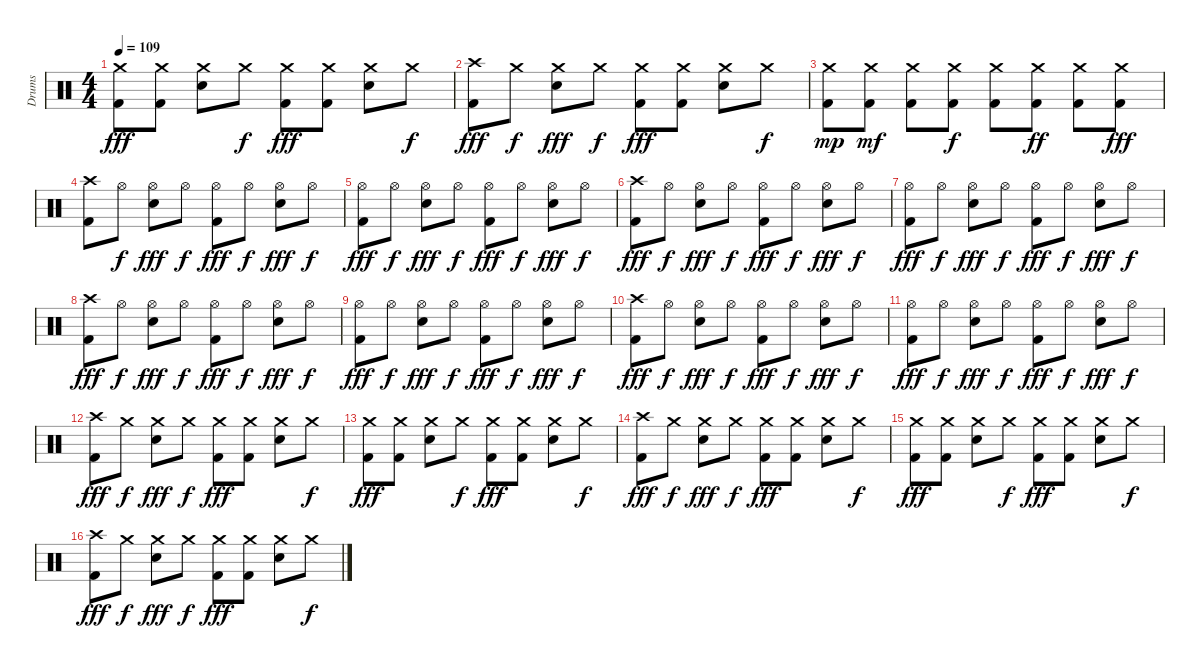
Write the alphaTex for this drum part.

\track ("Drums" "Drums") {instrument percussion}
\staff {score}
\articulation defaults
\ts (4 4)
\tempo 109
\clef neutral
\ks c
("Crash medium (hit)" "Kick (hit) 2").8{dy fff} ("Crash medium (hit)" "Kick (hit) 2").8 ("Crash medium (hit)" "Electric Snare (hit)").8 "Crash medium (hit)".8{dy f} ("Crash medium (hit)" "Kick (hit) 2").8{dy fff} ("Crash medium (hit)" "Kick (hit) 2").8 ("Crash medium (hit)" "Electric Snare (hit)").8 "Crash medium (hit)".8{dy f} |
("Crash high (hit)" "Kick (hit) 2").8{dy fff} "Crash medium (hit)".8{dy f} ("Crash medium (hit)" "Electric Snare (hit)").8{dy fff} "Crash medium (hit)".8{dy f} ("Crash medium (hit)" "Kick (hit) 2").8{dy fff} ("Crash medium (hit)" "Kick (hit) 2").8 ("Crash medium (hit)" "Electric Snare (hit)").8 "Crash medium (hit)".8{dy f} |
("Crash medium (hit)" "Kick (hit) 2").8{dy mp} ("Crash medium (hit)" "Kick (hit) 2").8{dy mf} ("Crash medium (hit)" "Kick (hit) 2").8 ("Crash medium (hit)" "Kick (hit) 2").8{dy f} ("Crash medium (hit)" "Kick (hit) 2").8 ("Crash medium (hit)" "Kick (hit) 2").8{dy ff} ("Crash medium (hit)" "Kick (hit) 2").8 ("Crash medium (hit)" "Kick (hit) 2").8{dy fff} |
("Crash high (hit)" "Kick (hit) 2").8 "Hi-Hat (open)".8{dy f} ("Hi-Hat (open)" "Electric Snare (hit)").8{dy fff} "Hi-Hat (open)".8{dy f} ("Hi-Hat (open)" "Kick (hit) 2").8{dy fff} "Hi-Hat (open)".8{dy f} ("Hi-Hat (open)" "Electric Snare (hit)").8{dy fff} "Hi-Hat (open)".8{dy f} |
("Hi-Hat (open)" "Kick (hit) 2").8{dy fff} "Hi-Hat (open)".8{dy f} ("Hi-Hat (open)" "Electric Snare (hit)").8{dy fff} "Hi-Hat (open)".8{dy f} ("Hi-Hat (open)" "Kick (hit) 2").8{dy fff} "Hi-Hat (open)".8{dy f} ("Hi-Hat (open)" "Electric Snare (hit)").8{dy fff} "Hi-Hat (open)".8{dy f} |
("Crash high (hit)" "Kick (hit) 2").8{dy fff} "Hi-Hat (open)".8{dy f} ("Hi-Hat (open)" "Electric Snare (hit)").8{dy fff} "Hi-Hat (open)".8{dy f} ("Hi-Hat (open)" "Kick (hit) 2").8{dy fff} "Hi-Hat (open)".8{dy f} ("Hi-Hat (open)" "Electric Snare (hit)").8{dy fff} "Hi-Hat (open)".8{dy f} |
("Hi-Hat (open)" "Kick (hit) 2").8{dy fff} "Hi-Hat (open)".8{dy f} ("Hi-Hat (open)" "Electric Snare (hit)").8{dy fff} "Hi-Hat (open)".8{dy f} ("Hi-Hat (open)" "Kick (hit) 2").8{dy fff} "Hi-Hat (open)".8{dy f} ("Hi-Hat (open)" "Electric Snare (hit)").8{dy fff} "Hi-Hat (open)".8{dy f} |
("Crash high (hit)" "Kick (hit) 2").8{dy fff} "Hi-Hat (open)".8{dy f} ("Hi-Hat (open)" "Electric Snare (hit)").8{dy fff} "Hi-Hat (open)".8{dy f} ("Hi-Hat (open)" "Kick (hit) 2").8{dy fff} "Hi-Hat (open)".8{dy f} ("Hi-Hat (open)" "Electric Snare (hit)").8{dy fff} "Hi-Hat (open)".8{dy f} |
("Hi-Hat (open)" "Kick (hit) 2").8{dy fff} "Hi-Hat (open)".8{dy f} ("Hi-Hat (open)" "Electric Snare (hit)").8{dy fff} "Hi-Hat (open)".8{dy f} ("Hi-Hat (open)" "Kick (hit) 2").8{dy fff} "Hi-Hat (open)".8{dy f} ("Hi-Hat (open)" "Electric Snare (hit)").8{dy fff} "Hi-Hat (open)".8{dy f} |
("Crash high (hit)" "Kick (hit) 2").8{dy fff} "Hi-Hat (open)".8{dy f} ("Hi-Hat (open)" "Electric Snare (hit)").8{dy fff} "Hi-Hat (open)".8{dy f} ("Hi-Hat (open)" "Kick (hit) 2").8{dy fff} "Hi-Hat (open)".8{dy f} ("Hi-Hat (open)" "Electric Snare (hit)").8{dy fff} "Hi-Hat (open)".8{dy f} |
("Hi-Hat (open)" "Kick (hit) 2").8{dy fff} "Hi-Hat (open)".8{dy f} ("Hi-Hat (open)" "Electric Snare (hit)").8{dy fff} "Hi-Hat (open)".8{dy f} ("Hi-Hat (open)" "Kick (hit) 2").8{dy fff} "Hi-Hat (open)".8{dy f} ("Hi-Hat (open)" "Electric Snare (hit)").8{dy fff} "Hi-Hat (open)".8{dy f} |
("Crash high (hit)" "Kick (hit) 2").8{dy fff} "Crash medium (hit)".8{dy f} ("Crash medium (hit)" "Electric Snare (hit)").8{dy fff} "Crash medium (hit)".8{dy f} ("Crash medium (hit)" "Kick (hit) 2").8{dy fff} ("Crash medium (hit)" "Kick (hit) 2").8 ("Crash medium (hit)" "Electric Snare (hit)").8 "Crash medium (hit)".8{dy f} |
("Crash medium (hit)" "Kick (hit) 2").8{dy fff} ("Crash medium (hit)" "Kick (hit) 2").8 ("Crash medium (hit)" "Electric Snare (hit)").8 "Crash medium (hit)".8{dy f} ("Crash medium (hit)" "Kick (hit) 2").8{dy fff} ("Crash medium (hit)" "Kick (hit) 2").8 ("Crash medium (hit)" "Electric Snare (hit)").8 "Crash medium (hit)".8{dy f} |
("Crash high (hit)" "Kick (hit) 2").8{dy fff} "Crash medium (hit)".8{dy f} ("Crash medium (hit)" "Electric Snare (hit)").8{dy fff} "Crash medium (hit)".8{dy f} ("Crash medium (hit)" "Kick (hit) 2").8{dy fff} ("Crash medium (hit)" "Kick (hit) 2").8 ("Crash medium (hit)" "Electric Snare (hit)").8 "Crash medium (hit)".8{dy f} |
("Crash medium (hit)" "Kick (hit) 2").8{dy fff} ("Crash medium (hit)" "Kick (hit) 2").8 ("Crash medium (hit)" "Electric Snare (hit)").8 "Crash medium (hit)".8{dy f} ("Crash medium (hit)" "Kick (hit) 2").8{dy fff} ("Crash medium (hit)" "Kick (hit) 2").8 ("Crash medium (hit)" "Electric Snare (hit)").8 "Crash medium (hit)".8{dy f} |
("Crash high (hit)" "Kick (hit) 2").8{dy fff} "Crash medium (hit)".8{dy f} ("Crash medium (hit)" "Electric Snare (hit)").8{dy fff} "Crash medium (hit)".8{dy f} ("Crash medium (hit)" "Kick (hit) 2").8{dy fff} ("Crash medium (hit)" "Kick (hit) 2").8 ("Crash medium (hit)" "Electric Snare (hit)").8 "Crash medium (hit)".8{dy f}
